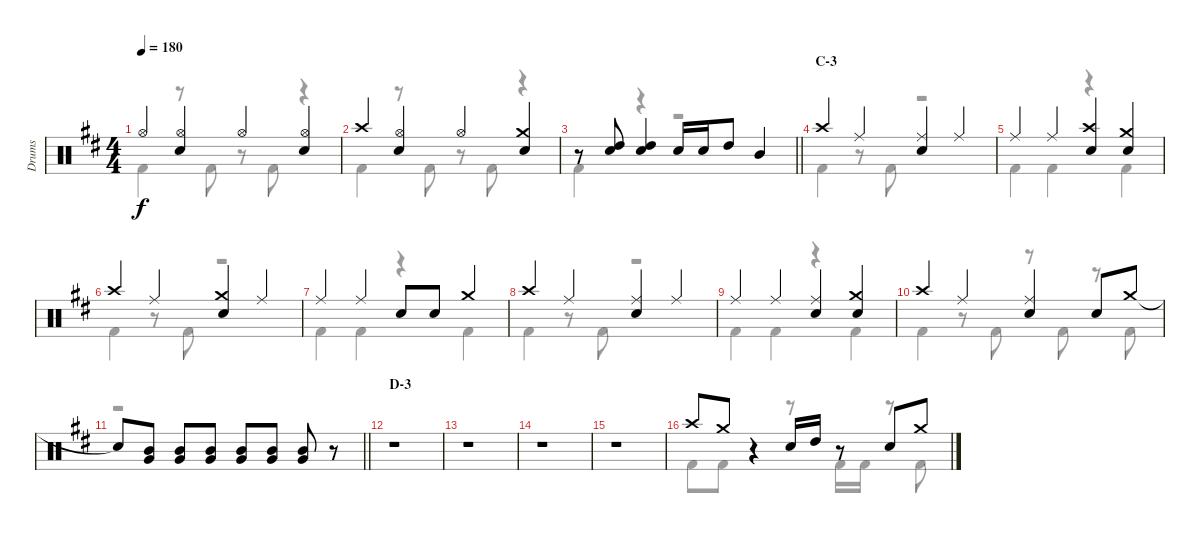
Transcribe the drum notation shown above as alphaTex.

\track ("Drums" "Drums") {instrument percussion}
\staff {score}
\articulation defaults
\voice
\ts (4 4)
\tempo 180
\clef neutral
\ks d "Hi-Hat (open)".4{dy f}
("Hi-Hat (open)" "Snare (hit) 2").4 "Hi-Hat (open)".4 ("Hi-Hat (open)" "Snare (hit) 2").4 |
"Crash high (hit)".4 ("Hi-Hat (open)" "Snare (hit) 2").4 "Hi-Hat (open)".4 ("Crash medium (hit)" "Snare (hit) 2").4 |
\barLineRight lightlight
r.8 ("High Tom (hit)" "Snare (hit) 2").8 ("High Tom (hit)" "Snare (hit) 2").4 "Snare (hit) 2".16 "Snare (hit) 2".16 "High Tom (hit)".8 "Mid Tom (hit)".4 |
\section ("" "C-3")
"Crash high (hit)".4 "Ride (middle)".4 ("Ride (middle)" "Snare (hit) 2").4 "Ride (middle)".4 |
"Ride (middle)".4 "Ride (middle)".4 ("Crash high (hit)" "Snare (hit) 2").4 ("Crash medium (hit)" "Snare (hit) 2").4 |
"Crash high (hit)".4 "Ride (middle)".4 ("Crash medium (hit)" "Snare (hit) 2").4 "Ride (middle)".4 |
"Ride (middle)".4 "Ride (middle)".4 "Snare (hit) 2".8 "Snare (hit) 2".8 "Crash medium (hit)".4 |
"Crash high (hit)".4 "Ride (middle)".4 ("Ride (middle)" "Snare (hit) 2").4 "Ride (middle)".4 |
"Ride (middle)".4 "Ride (middle)".4 ("Ride (middle)" "Snare (hit) 2").4 ("Crash medium (hit)" "Snare (hit) 2").4 |
"Crash high (hit)".4 "Ride (middle)".4 ("Ride (middle)" "Snare (hit) 2").4 "Snare (hit) 2".8 "Crash medium (hit)".8 |
\barLineRight lightlight "Snare (hit)"{t}.8
("Mid Tom (hit)" "Very Low Tom (hit)").8 ("Mid Tom (hit)" "Very Low Tom (hit)").8 ("Mid Tom (hit)" "Very Low Tom (hit)").8 ("Mid Tom (hit)" "Very Low Tom (hit)").8 ("Mid Tom (hit)" "Very Low Tom (hit)").8 ("Mid Tom (hit)" "Very Low Tom (hit)").8 r.8 |
\section ("" "D-3")
r.1 |
r.1 |
r.1 |
r.1 |
"Crash high (hit)".8 "Crash medium (hit)".8 r.4 "Snare (hit) 2".16 "High Tom (hit)".16 r.8 "Snare (hit) 2".8 "Crash medium (hit)".8
\voice
\clef neutral
\ottava regular
\simile none
\ks d "Kick (hit) 2".4{dy f}
r.8 "Kick (hit) 2".8 r.8 "Kick (hit) 2".8 r.4 |
"Kick (hit) 2".4 r.8 "Kick (hit) 2".8 r.8 "Kick (hit) 2".8 r.4 |
\barLineRight lightlight "Kick (hit) 2".4
r.4 r.2 |
"Kick (hit) 2".4 r.8 "Kick (hit) 2".8 r.2 |
"Kick (hit) 2".4 "Kick (hit) 2".4 r.4 "Kick (hit) 2".4 |
"Kick (hit) 2".4 r.8 "Kick (hit) 2".8 r.2 |
"Kick (hit) 2".4 "Kick (hit) 2".4 r.4 "Kick (hit) 2".4 |
"Kick (hit) 2".4 r.8 "Kick (hit) 2".8 r.2 |
"Kick (hit) 2".4 "Kick (hit) 2".4 r.4 "Kick (hit) 2".4 |
"Kick (hit) 2".4 r.8 "Kick (hit) 2".8 r.8 "Kick (hit) 2".8 r.8 "Kick (hit) 2".8 |
\barLineRight lightlight
r.1 |
r.1 |
r.1 |
r.1 |
r.1 |
"Kick (hit) 2".8 "Kick (hit) 2".8 r.4 r.8 "Kick (hit) 2".16 "Kick (hit) 2".16 r.8 "Kick (hit) 2".8
